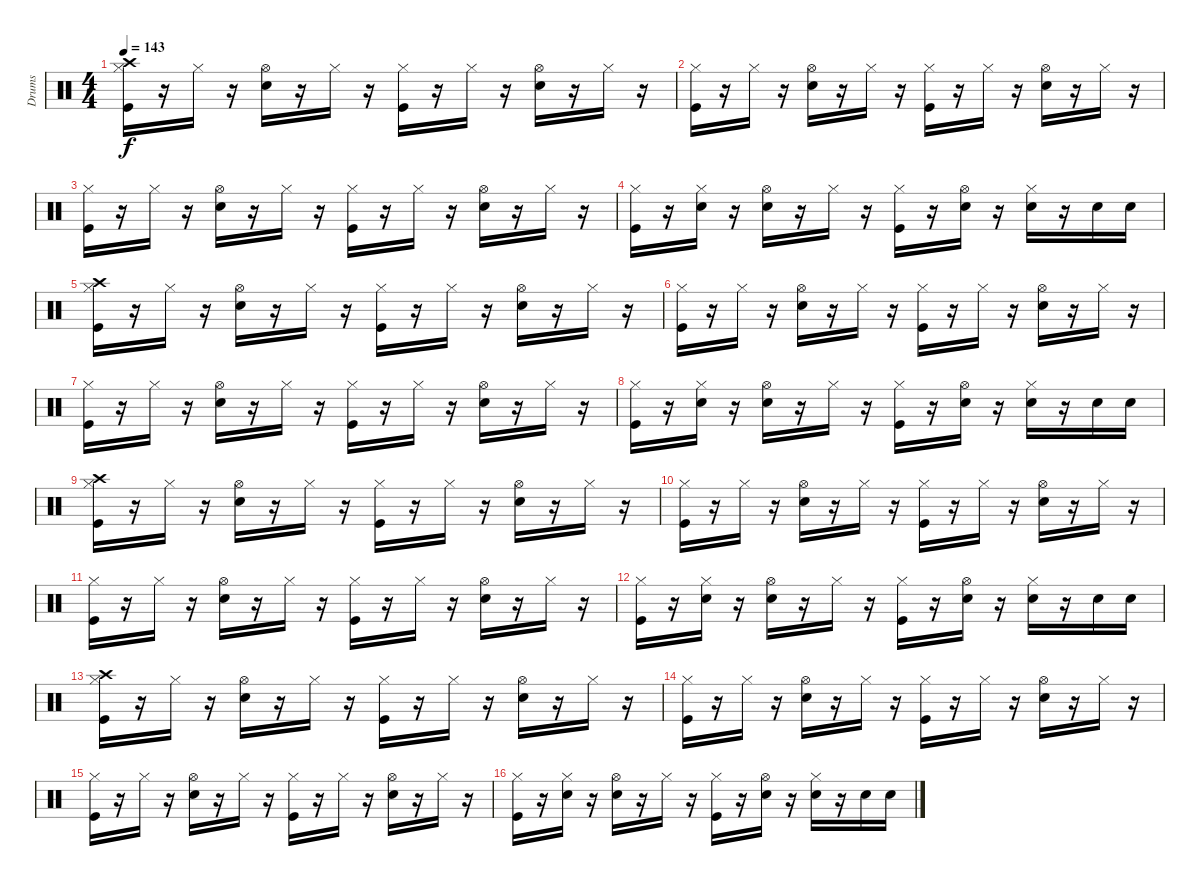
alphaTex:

\track ("Drums" "Drums") {instrument percussion}
\staff {score}
\articulation defaults
\ts (4 4)
\tempo 143
\clef neutral
\ks c
("Hi-Hat (closed)" "Kick (hit)" "Crash high (hit)").16{dy f} r.16 "Hi-Hat (closed)".16 r.16 ("Hi-Hat (open)" "Snare (hit) 2").16 r.16 "Hi-Hat (closed)".16 r.16 ("Hi-Hat (closed)" "Kick (hit)").16 r.16 "Hi-Hat (closed)".16 r.16 ("Hi-Hat (open)" "Snare (hit) 2").16 r.16 "Hi-Hat (closed)".16 r.16 |
("Hi-Hat (closed)" "Kick (hit)").16 r.16 "Hi-Hat (closed)".16 r.16 ("Hi-Hat (open)" "Snare (hit) 2").16 r.16 "Hi-Hat (closed)".16 r.16 ("Hi-Hat (closed)" "Kick (hit)").16 r.16 "Hi-Hat (closed)".16 r.16 ("Hi-Hat (open)" "Snare (hit) 2").16 r.16 "Hi-Hat (closed)".16 r.16 |
("Hi-Hat (closed)" "Kick (hit)").16 r.16 "Hi-Hat (closed)".16 r.16 ("Hi-Hat (open)" "Snare (hit) 2").16 r.16 "Hi-Hat (closed)".16 r.16 ("Hi-Hat (closed)" "Kick (hit)").16 r.16 "Hi-Hat (closed)".16 r.16 ("Hi-Hat (open)" "Snare (hit) 2").16 r.16 "Hi-Hat (closed)".16 r.16 |
("Hi-Hat (closed)" "Kick (hit)").16 r.16 ("Hi-Hat (closed)" "Snare (hit) 2").16 r.16 ("Hi-Hat (open)" "Snare (hit) 2").16 r.16 "Hi-Hat (closed)".16 r.16 ("Hi-Hat (closed)" "Kick (hit)").16 r.16 ("Hi-Hat (open)" "Snare (hit) 2").16 r.16 ("Hi-Hat (closed)" "Snare (hit) 2").16 r.16 "Snare (hit) 2".16 "Snare (hit) 2".16 |
("Hi-Hat (closed)" "Kick (hit)" "Crash high (hit)").16 r.16 "Hi-Hat (closed)".16 r.16 ("Hi-Hat (open)" "Snare (hit) 2").16 r.16 "Hi-Hat (closed)".16 r.16 ("Hi-Hat (closed)" "Kick (hit)").16 r.16 "Hi-Hat (closed)".16 r.16 ("Hi-Hat (open)" "Snare (hit) 2").16 r.16 "Hi-Hat (closed)".16 r.16 |
("Hi-Hat (closed)" "Kick (hit)").16 r.16 "Hi-Hat (closed)".16 r.16 ("Hi-Hat (open)" "Snare (hit) 2").16 r.16 "Hi-Hat (closed)".16 r.16 ("Hi-Hat (closed)" "Kick (hit)").16 r.16 "Hi-Hat (closed)".16 r.16 ("Hi-Hat (open)" "Snare (hit) 2").16 r.16 "Hi-Hat (closed)".16 r.16 |
("Hi-Hat (closed)" "Kick (hit)").16 r.16 "Hi-Hat (closed)".16 r.16 ("Hi-Hat (open)" "Snare (hit) 2").16 r.16 "Hi-Hat (closed)".16 r.16 ("Hi-Hat (closed)" "Kick (hit)").16 r.16 "Hi-Hat (closed)".16 r.16 ("Hi-Hat (open)" "Snare (hit) 2").16 r.16 "Hi-Hat (closed)".16 r.16 |
("Hi-Hat (closed)" "Kick (hit)").16 r.16 ("Hi-Hat (closed)" "Snare (hit) 2").16 r.16 ("Hi-Hat (open)" "Snare (hit) 2").16 r.16 "Hi-Hat (closed)".16 r.16 ("Hi-Hat (closed)" "Kick (hit)").16 r.16 ("Hi-Hat (open)" "Snare (hit) 2").16 r.16 ("Hi-Hat (closed)" "Snare (hit) 2").16 r.16 "Snare (hit) 2".16 "Snare (hit) 2".16 |
("Hi-Hat (closed)" "Kick (hit)" "Crash high (hit)").16 r.16 "Hi-Hat (closed)".16 r.16 ("Hi-Hat (open)" "Snare (hit) 2").16 r.16 "Hi-Hat (closed)".16 r.16 ("Hi-Hat (closed)" "Kick (hit)").16 r.16 "Hi-Hat (closed)".16 r.16 ("Hi-Hat (open)" "Snare (hit) 2").16 r.16 "Hi-Hat (closed)".16 r.16 |
("Hi-Hat (closed)" "Kick (hit)").16 r.16 "Hi-Hat (closed)".16 r.16 ("Hi-Hat (open)" "Snare (hit) 2").16 r.16 "Hi-Hat (closed)".16 r.16 ("Hi-Hat (closed)" "Kick (hit)").16 r.16 "Hi-Hat (closed)".16 r.16 ("Hi-Hat (open)" "Snare (hit) 2").16 r.16 "Hi-Hat (closed)".16 r.16 |
("Hi-Hat (closed)" "Kick (hit)").16 r.16 "Hi-Hat (closed)".16 r.16 ("Hi-Hat (open)" "Snare (hit) 2").16 r.16 "Hi-Hat (closed)".16 r.16 ("Hi-Hat (closed)" "Kick (hit)").16 r.16 "Hi-Hat (closed)".16 r.16 ("Hi-Hat (open)" "Snare (hit) 2").16 r.16 "Hi-Hat (closed)".16 r.16 |
("Hi-Hat (closed)" "Kick (hit)").16 r.16 ("Hi-Hat (closed)" "Snare (hit) 2").16 r.16 ("Hi-Hat (open)" "Snare (hit) 2").16 r.16 "Hi-Hat (closed)".16 r.16 ("Hi-Hat (closed)" "Kick (hit)").16 r.16 ("Hi-Hat (open)" "Snare (hit) 2").16 r.16 ("Hi-Hat (closed)" "Snare (hit) 2").16 r.16 "Snare (hit) 2".16 "Snare (hit) 2".16 |
("Hi-Hat (closed)" "Kick (hit)" "Crash high (hit)").16 r.16 "Hi-Hat (closed)".16 r.16 ("Hi-Hat (open)" "Snare (hit) 2").16 r.16 "Hi-Hat (closed)".16 r.16 ("Hi-Hat (closed)" "Kick (hit)").16 r.16 "Hi-Hat (closed)".16 r.16 ("Hi-Hat (open)" "Snare (hit) 2").16 r.16 "Hi-Hat (closed)".16 r.16 |
("Hi-Hat (closed)" "Kick (hit)").16 r.16 "Hi-Hat (closed)".16 r.16 ("Hi-Hat (open)" "Snare (hit) 2").16 r.16 "Hi-Hat (closed)".16 r.16 ("Hi-Hat (closed)" "Kick (hit)").16 r.16 "Hi-Hat (closed)".16 r.16 ("Hi-Hat (open)" "Snare (hit) 2").16 r.16 "Hi-Hat (closed)".16 r.16 |
("Hi-Hat (closed)" "Kick (hit)").16 r.16 "Hi-Hat (closed)".16 r.16 ("Hi-Hat (open)" "Snare (hit) 2").16 r.16 "Hi-Hat (closed)".16 r.16 ("Hi-Hat (closed)" "Kick (hit)").16 r.16 "Hi-Hat (closed)".16 r.16 ("Hi-Hat (open)" "Snare (hit) 2").16 r.16 "Hi-Hat (closed)".16 r.16 |
("Hi-Hat (closed)" "Kick (hit)").16 r.16 ("Hi-Hat (closed)" "Snare (hit) 2").16 r.16 ("Hi-Hat (open)" "Snare (hit) 2").16 r.16 "Hi-Hat (closed)".16 r.16 ("Hi-Hat (closed)" "Kick (hit)").16 r.16 ("Hi-Hat (open)" "Snare (hit) 2").16 r.16 ("Hi-Hat (closed)" "Snare (hit) 2").16 r.16 "Snare (hit) 2".16 "Snare (hit) 2".16
